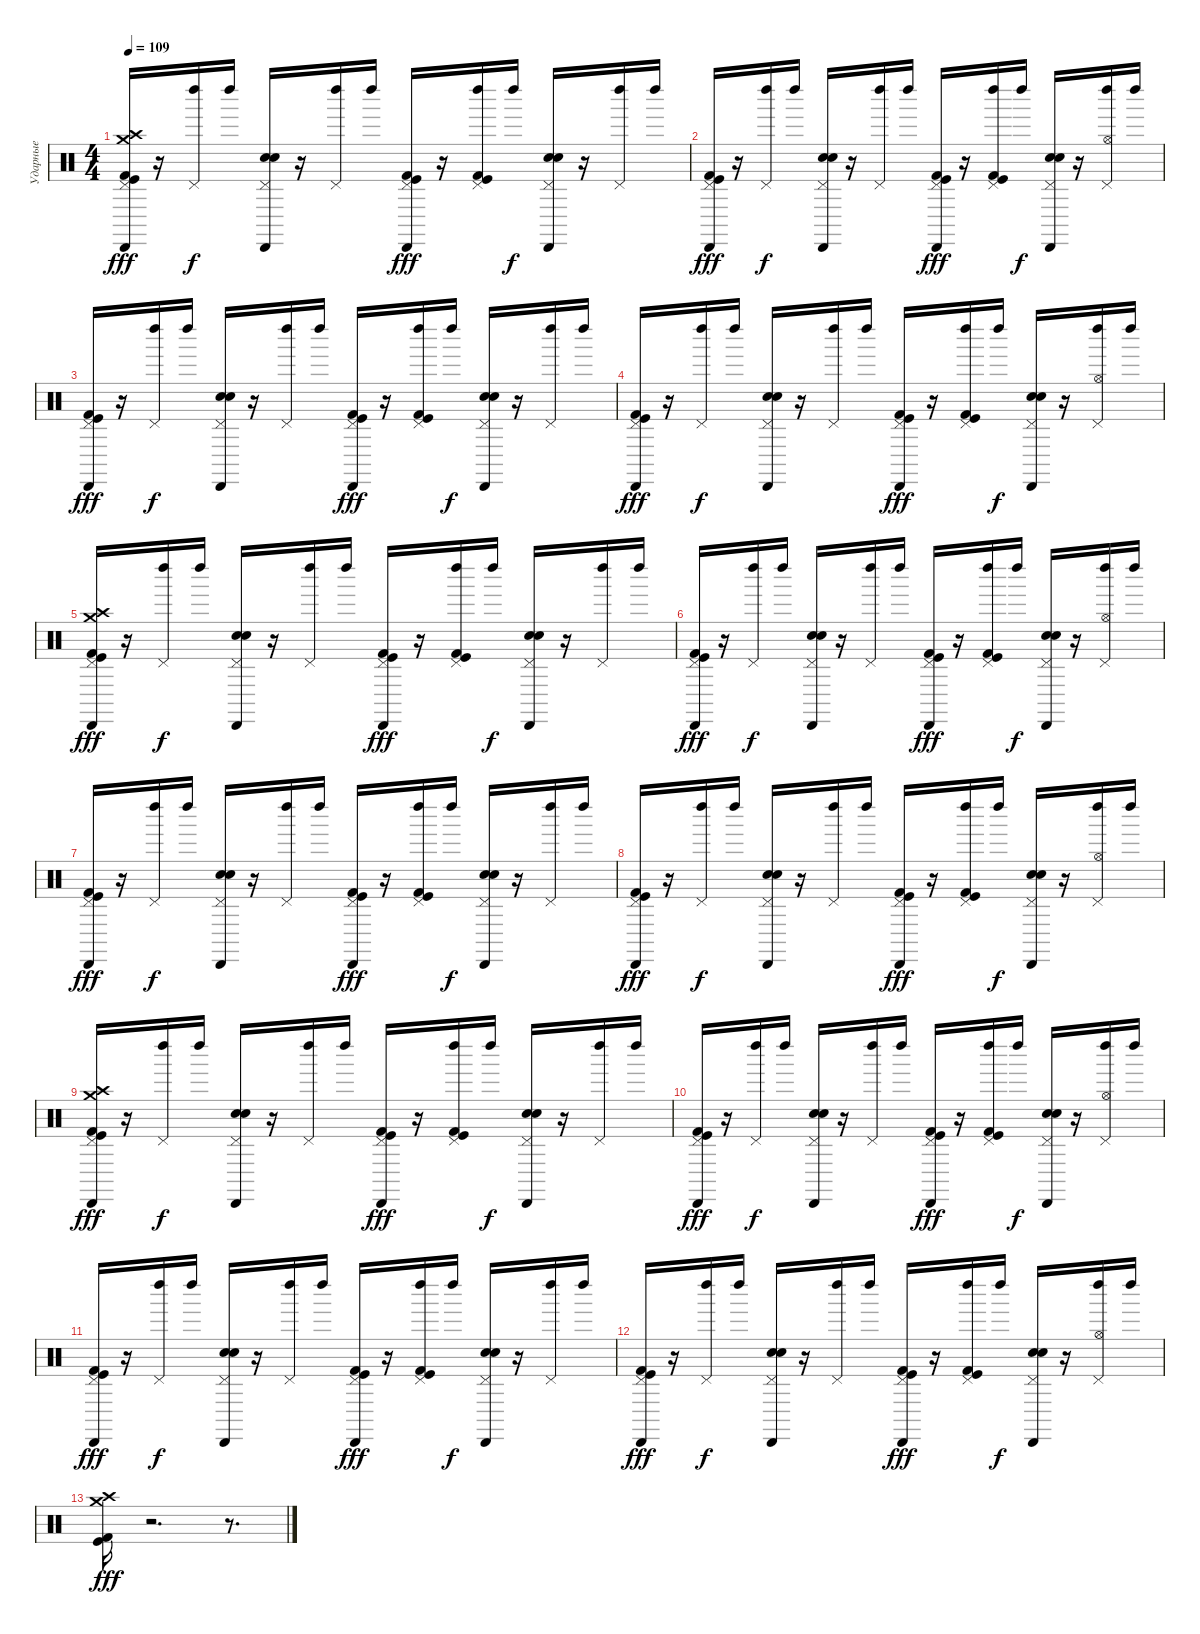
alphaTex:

\track ("Ударные" "Ударные") {instrument percussion}
\staff {score}
\articulation defaults
\ts (4 4)
\tempo 109
\clef neutral
\ks c
("Cabasa (hit)" "Kick (hit) 2" "Kick (hit)" "Pedal Hi-Hat (hit)" "Crash medium (hit)" "Crash high (hit)").16{dy fff} r.16 ("Left Maraca (hit)" "Pedal Hi-Hat (hit)").16{dy f} "Left Maraca (hit)".16 ("Cabasa (hit)" "Electric Snare (hit)" "Snare (hit) 2" "Pedal Hi-Hat (hit)").16 r.16 ("Left Maraca (hit)" "Pedal Hi-Hat (hit)").16 "Left Maraca (hit)".16 ("Cabasa (hit)" "Kick (hit) 2" "Kick (hit)" "Pedal Hi-Hat (hit)").16{dy fff} r.16 ("Left Maraca (hit)" "Kick (hit) 2" "Kick (hit)" "Pedal Hi-Hat (hit)").16 "Left Maraca (hit)".16{dy f} ("Cabasa (hit)" "Snare (hit) 2" "Electric Snare (hit)" "Pedal Hi-Hat (hit)").16 r.16 ("Left Maraca (hit)" "Pedal Hi-Hat (hit)").16 "Left Maraca (hit)".16 |
("Cabasa (hit)" "Kick (hit) 2" "Kick (hit)" "Pedal Hi-Hat (hit)").16{dy fff} r.16 ("Left Maraca (hit)" "Pedal Hi-Hat (hit)").16{dy f} "Left Maraca (hit)".16 ("Cabasa (hit)" "Snare (hit) 2" "Electric Snare (hit)" "Pedal Hi-Hat (hit)").16 r.16 ("Left Maraca (hit)" "Pedal Hi-Hat (hit)").16 "Left Maraca (hit)".16 ("Cabasa (hit)" "Kick (hit)" "Kick (hit) 2" "Pedal Hi-Hat (hit)").16{dy fff} r.16 ("Left Maraca (hit)" "Kick (hit) 2" "Kick (hit)" "Pedal Hi-Hat (hit)").16 "Left Maraca (hit)".16{dy f} ("Cabasa (hit)" "Snare (hit) 2" "Electric Snare (hit)" "Pedal Hi-Hat (hit)").16 r.16 ("Left Maraca (hit)" "Pedal Hi-Hat (hit)" "Hi-Hat (open)").16 "Left Maraca (hit)".16 |
("Cabasa (hit)" "Kick (hit)" "Kick (hit) 2" "Pedal Hi-Hat (hit)").16{dy fff} r.16 ("Left Maraca (hit)" "Pedal Hi-Hat (hit)").16{dy f} "Left Maraca (hit)".16 ("Cabasa (hit)" "Snare (hit) 2" "Electric Snare (hit)" "Pedal Hi-Hat (hit)").16 r.16 ("Left Maraca (hit)" "Pedal Hi-Hat (hit)").16 "Left Maraca (hit)".16 ("Cabasa (hit)" "Kick (hit)" "Kick (hit) 2" "Pedal Hi-Hat (hit)").16{dy fff} r.16 ("Left Maraca (hit)" "Kick (hit) 2" "Kick (hit)" "Pedal Hi-Hat (hit)").16 "Left Maraca (hit)".16{dy f} ("Cabasa (hit)" "Snare (hit) 2" "Electric Snare (hit)" "Pedal Hi-Hat (hit)").16 r.16 ("Left Maraca (hit)" "Pedal Hi-Hat (hit)").16 "Left Maraca (hit)".16 |
("Cabasa (hit)" "Kick (hit) 2" "Kick (hit)" "Pedal Hi-Hat (hit)").16{dy fff} r.16 ("Left Maraca (hit)" "Pedal Hi-Hat (hit)").16{dy f} "Left Maraca (hit)".16 ("Cabasa (hit)" "Snare (hit) 2" "Electric Snare (hit)" "Pedal Hi-Hat (hit)").16 r.16 ("Left Maraca (hit)" "Pedal Hi-Hat (hit)").16 "Left Maraca (hit)".16 ("Cabasa (hit)" "Kick (hit)" "Kick (hit) 2" "Pedal Hi-Hat (hit)").16{dy fff} r.16 ("Left Maraca (hit)" "Kick (hit) 2" "Kick (hit)" "Pedal Hi-Hat (hit)").16 "Left Maraca (hit)".16{dy f} ("Cabasa (hit)" "Snare (hit) 2" "Electric Snare (hit)" "Pedal Hi-Hat (hit)").16 r.16 ("Left Maraca (hit)" "Pedal Hi-Hat (hit)" "Hi-Hat (open)").16 "Left Maraca (hit)".16 |
("Cabasa (hit)" "Kick (hit)" "Kick (hit) 2" "Pedal Hi-Hat (hit)" "Crash medium (hit)" "Crash high (hit)").16{dy fff} r.16 ("Left Maraca (hit)" "Pedal Hi-Hat (hit)").16{dy f} "Left Maraca (hit)".16 ("Cabasa (hit)" "Electric Snare (hit)" "Snare (hit) 2" "Pedal Hi-Hat (hit)").16 r.16 ("Left Maraca (hit)" "Pedal Hi-Hat (hit)").16 "Left Maraca (hit)".16 ("Cabasa (hit)" "Kick (hit)" "Kick (hit) 2" "Pedal Hi-Hat (hit)").16{dy fff} r.16 ("Left Maraca (hit)" "Kick (hit)" "Kick (hit) 2" "Pedal Hi-Hat (hit)").16 "Left Maraca (hit)".16{dy f} ("Cabasa (hit)" "Snare (hit) 2" "Electric Snare (hit)" "Pedal Hi-Hat (hit)").16 r.16 ("Left Maraca (hit)" "Pedal Hi-Hat (hit)").16 "Left Maraca (hit)".16 |
("Cabasa (hit)" "Kick (hit) 2" "Kick (hit)" "Pedal Hi-Hat (hit)").16{dy fff} r.16 ("Left Maraca (hit)" "Pedal Hi-Hat (hit)").16{dy f} "Left Maraca (hit)".16 ("Cabasa (hit)" "Electric Snare (hit)" "Snare (hit) 2" "Pedal Hi-Hat (hit)").16 r.16 ("Left Maraca (hit)" "Pedal Hi-Hat (hit)").16 "Left Maraca (hit)".16 ("Cabasa (hit)" "Kick (hit) 2" "Kick (hit)" "Pedal Hi-Hat (hit)").16{dy fff} r.16 ("Left Maraca (hit)" "Kick (hit) 2" "Kick (hit)" "Pedal Hi-Hat (hit)").16 "Left Maraca (hit)".16{dy f} ("Cabasa (hit)" "Snare (hit) 2" "Electric Snare (hit)" "Pedal Hi-Hat (hit)").16 r.16 ("Left Maraca (hit)" "Pedal Hi-Hat (hit)" "Hi-Hat (open)").16 "Left Maraca (hit)".16 |
("Cabasa (hit)" "Kick (hit)" "Kick (hit) 2" "Pedal Hi-Hat (hit)").16{dy fff} r.16 ("Left Maraca (hit)" "Pedal Hi-Hat (hit)").16{dy f} "Left Maraca (hit)".16 ("Cabasa (hit)" "Electric Snare (hit)" "Snare (hit) 2" "Pedal Hi-Hat (hit)").16 r.16 ("Left Maraca (hit)" "Pedal Hi-Hat (hit)").16 "Left Maraca (hit)".16 ("Cabasa (hit)" "Kick (hit)" "Kick (hit) 2" "Pedal Hi-Hat (hit)").16{dy fff} r.16 ("Left Maraca (hit)" "Kick (hit) 2" "Kick (hit)" "Pedal Hi-Hat (hit)").16 "Left Maraca (hit)".16{dy f} ("Cabasa (hit)" "Snare (hit) 2" "Electric Snare (hit)" "Pedal Hi-Hat (hit)").16 r.16 ("Left Maraca (hit)" "Pedal Hi-Hat (hit)").16 "Left Maraca (hit)".16 |
("Cabasa (hit)" "Kick (hit)" "Kick (hit) 2" "Pedal Hi-Hat (hit)").16{dy fff} r.16 ("Left Maraca (hit)" "Pedal Hi-Hat (hit)").16{dy f} "Left Maraca (hit)".16 ("Cabasa (hit)" "Snare (hit) 2" "Electric Snare (hit)" "Pedal Hi-Hat (hit)").16 r.16 ("Left Maraca (hit)" "Pedal Hi-Hat (hit)").16 "Left Maraca (hit)".16 ("Cabasa (hit)" "Kick (hit) 2" "Kick (hit)" "Pedal Hi-Hat (hit)").16{dy fff} r.16 ("Left Maraca (hit)" "Kick (hit) 2" "Kick (hit)" "Pedal Hi-Hat (hit)").16 "Left Maraca (hit)".16{dy f} ("Cabasa (hit)" "Snare (hit) 2" "Electric Snare (hit)" "Pedal Hi-Hat (hit)").16 r.16 ("Left Maraca (hit)" "Pedal Hi-Hat (hit)" "Hi-Hat (open)").16 "Left Maraca (hit)".16 |
("Cabasa (hit)" "Kick (hit) 2" "Kick (hit)" "Pedal Hi-Hat (hit)" "Crash medium (hit)" "Crash high (hit)").16{dy fff} r.16 ("Left Maraca (hit)" "Pedal Hi-Hat (hit)").16{dy f} "Left Maraca (hit)".16 ("Cabasa (hit)" "Electric Snare (hit)" "Snare (hit) 2" "Pedal Hi-Hat (hit)").16 r.16 ("Left Maraca (hit)" "Pedal Hi-Hat (hit)").16 "Left Maraca (hit)".16 ("Cabasa (hit)" "Kick (hit) 2" "Kick (hit)" "Pedal Hi-Hat (hit)").16{dy fff} r.16 ("Left Maraca (hit)" "Kick (hit) 2" "Kick (hit)" "Pedal Hi-Hat (hit)").16 "Left Maraca (hit)".16{dy f} ("Cabasa (hit)" "Snare (hit) 2" "Electric Snare (hit)" "Pedal Hi-Hat (hit)").16 r.16 ("Left Maraca (hit)" "Pedal Hi-Hat (hit)").16 "Left Maraca (hit)".16 |
("Cabasa (hit)" "Kick (hit) 2" "Kick (hit)" "Pedal Hi-Hat (hit)").16{dy fff} r.16 ("Left Maraca (hit)" "Pedal Hi-Hat (hit)").16{dy f} "Left Maraca (hit)".16 ("Cabasa (hit)" "Snare (hit) 2" "Electric Snare (hit)" "Pedal Hi-Hat (hit)").16 r.16 ("Left Maraca (hit)" "Pedal Hi-Hat (hit)").16 "Left Maraca (hit)".16 ("Cabasa (hit)" "Kick (hit)" "Kick (hit) 2" "Pedal Hi-Hat (hit)").16{dy fff} r.16 ("Left Maraca (hit)" "Kick (hit) 2" "Kick (hit)" "Pedal Hi-Hat (hit)").16 "Left Maraca (hit)".16{dy f} ("Cabasa (hit)" "Snare (hit) 2" "Electric Snare (hit)" "Pedal Hi-Hat (hit)").16 r.16 ("Left Maraca (hit)" "Pedal Hi-Hat (hit)" "Hi-Hat (open)").16 "Left Maraca (hit)".16 |
("Cabasa (hit)" "Kick (hit)" "Kick (hit) 2" "Pedal Hi-Hat (hit)").16{dy fff} r.16 ("Left Maraca (hit)" "Pedal Hi-Hat (hit)").16{dy f} "Left Maraca (hit)".16 ("Cabasa (hit)" "Snare (hit) 2" "Electric Snare (hit)" "Pedal Hi-Hat (hit)").16 r.16 ("Left Maraca (hit)" "Pedal Hi-Hat (hit)").16 "Left Maraca (hit)".16 ("Cabasa (hit)" "Kick (hit)" "Kick (hit) 2" "Pedal Hi-Hat (hit)").16{dy fff} r.16 ("Left Maraca (hit)" "Kick (hit) 2" "Kick (hit)" "Pedal Hi-Hat (hit)").16 "Left Maraca (hit)".16{dy f} ("Cabasa (hit)" "Snare (hit) 2" "Electric Snare (hit)" "Pedal Hi-Hat (hit)").16 r.16 ("Left Maraca (hit)" "Pedal Hi-Hat (hit)").16 "Left Maraca (hit)".16 |
("Cabasa (hit)" "Kick (hit) 2" "Kick (hit)" "Pedal Hi-Hat (hit)").16{dy fff} r.16 ("Left Maraca (hit)" "Pedal Hi-Hat (hit)").16{dy f} "Left Maraca (hit)".16 ("Cabasa (hit)" "Snare (hit) 2" "Electric Snare (hit)" "Pedal Hi-Hat (hit)").16 r.16 ("Left Maraca (hit)" "Pedal Hi-Hat (hit)").16 "Left Maraca (hit)".16 ("Cabasa (hit)" "Kick (hit)" "Kick (hit) 2" "Pedal Hi-Hat (hit)").16{dy fff} r.16 ("Left Maraca (hit)" "Kick (hit) 2" "Kick (hit)" "Pedal Hi-Hat (hit)").16 "Left Maraca (hit)".16{dy f} ("Cabasa (hit)" "Snare (hit) 2" "Electric Snare (hit)" "Pedal Hi-Hat (hit)").16 r.16 ("Left Maraca (hit)" "Pedal Hi-Hat (hit)" "Hi-Hat (open)").16 "Left Maraca (hit)".16 |
("Kick (hit) 2" "Kick (hit)" "Crash medium (hit)" "Crash high (hit)").16{dy fff} r.2{d} r.8{d}
